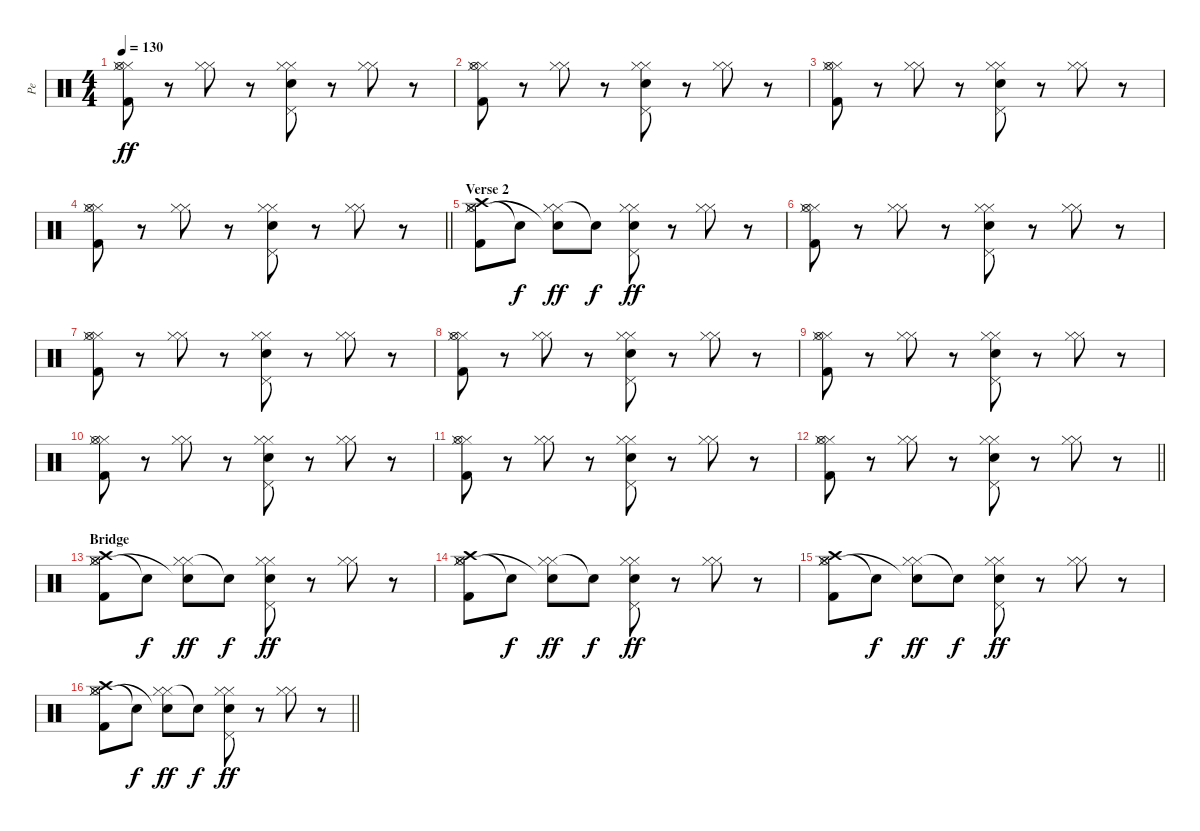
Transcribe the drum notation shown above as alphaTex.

\track ("Pe" "Pe") {instrument percussion}
\staff {score}
\articulation defaults
\ts (4 4)
\tempo 130
\clef neutral
\ks c
("Hi-Hat (closed)" "Hi-Hat (closed)" "Hi-Hat (open)" "Kick (hit) 2").8{dy ff} r.8 ("Hi-Hat (closed)" "Hi-Hat (closed)").8 r.8 ("Hi-Hat (closed)" "Hi-Hat (closed)" "Pedal Hi-Hat (hit)" "Electric Snare (hit)").8 r.8 ("Hi-Hat (closed)" "Hi-Hat (closed)").8 r.8 |
("Hi-Hat (closed)" "Hi-Hat (closed)" "Hi-Hat (open)" "Kick (hit) 2").8 r.8 ("Hi-Hat (closed)" "Hi-Hat (closed)").8 r.8 ("Hi-Hat (closed)" "Hi-Hat (closed)" "Pedal Hi-Hat (hit)" "Electric Snare (hit)").8 r.8 ("Hi-Hat (closed)" "Hi-Hat (closed)").8 r.8 |
("Hi-Hat (closed)" "Hi-Hat (closed)" "Hi-Hat (open)" "Kick (hit) 2").8 r.8 ("Hi-Hat (closed)" "Hi-Hat (closed)").8 r.8 ("Hi-Hat (closed)" "Hi-Hat (closed)" "Pedal Hi-Hat (hit)" "Electric Snare (hit)").8 r.8 ("Hi-Hat (closed)" "Hi-Hat (closed)").8 r.8 |
\barLineRight lightlight
("Hi-Hat (closed)" "Hi-Hat (closed)" "Hi-Hat (open)" "Kick (hit) 2").8 r.8 ("Hi-Hat (closed)" "Hi-Hat (closed)").8 r.8 ("Hi-Hat (closed)" "Hi-Hat (closed)" "Pedal Hi-Hat (hit)" "Electric Snare (hit)").8 r.8 ("Hi-Hat (closed)" "Hi-Hat (closed)").8 r.8 |
\section ("" "Verse 2")
("Hi-Hat (closed)" "Hi-Hat (closed)" "Hi-Hat (open)" "Crash high (hit)" "Kick (hit) 2").8 "Snare (hit)"{t}.8{dy f} ("Hi-Hat (closed)" "Hi-Hat (closed)" "Snare (hit)"{t}).8{dy ff} "Snare (hit)"{t}.8{dy f} ("Hi-Hat (closed)" "Hi-Hat (closed)" "Pedal Hi-Hat (hit)" "Electric Snare (hit)").8{dy ff} r.8 ("Hi-Hat (closed)" "Hi-Hat (closed)").8 r.8 |
("Hi-Hat (closed)" "Hi-Hat (closed)" "Hi-Hat (open)" "Kick (hit) 2").8 r.8 ("Hi-Hat (closed)" "Hi-Hat (closed)").8 r.8 ("Hi-Hat (closed)" "Hi-Hat (closed)" "Pedal Hi-Hat (hit)" "Electric Snare (hit)").8 r.8 ("Hi-Hat (closed)" "Hi-Hat (closed)").8 r.8 |
("Hi-Hat (closed)" "Hi-Hat (closed)" "Hi-Hat (open)" "Kick (hit) 2").8 r.8 ("Hi-Hat (closed)" "Hi-Hat (closed)").8 r.8 ("Hi-Hat (closed)" "Hi-Hat (closed)" "Pedal Hi-Hat (hit)" "Electric Snare (hit)").8 r.8 ("Hi-Hat (closed)" "Hi-Hat (closed)").8 r.8 |
("Hi-Hat (closed)" "Hi-Hat (closed)" "Hi-Hat (open)" "Kick (hit) 2").8 r.8 ("Hi-Hat (closed)" "Hi-Hat (closed)").8 r.8 ("Hi-Hat (closed)" "Hi-Hat (closed)" "Pedal Hi-Hat (hit)" "Electric Snare (hit)").8 r.8 ("Hi-Hat (closed)" "Hi-Hat (closed)").8 r.8 |
("Hi-Hat (closed)" "Hi-Hat (closed)" "Hi-Hat (open)" "Kick (hit) 2").8 r.8 ("Hi-Hat (closed)" "Hi-Hat (closed)").8 r.8 ("Hi-Hat (closed)" "Hi-Hat (closed)" "Pedal Hi-Hat (hit)" "Electric Snare (hit)").8 r.8 ("Hi-Hat (closed)" "Hi-Hat (closed)").8 r.8 |
("Hi-Hat (closed)" "Hi-Hat (closed)" "Hi-Hat (open)" "Kick (hit) 2").8 r.8 ("Hi-Hat (closed)" "Hi-Hat (closed)").8 r.8 ("Hi-Hat (closed)" "Hi-Hat (closed)" "Pedal Hi-Hat (hit)" "Electric Snare (hit)").8 r.8 ("Hi-Hat (closed)" "Hi-Hat (closed)").8 r.8 |
("Hi-Hat (closed)" "Hi-Hat (closed)" "Hi-Hat (open)" "Kick (hit) 2").8 r.8 ("Hi-Hat (closed)" "Hi-Hat (closed)").8 r.8 ("Hi-Hat (closed)" "Hi-Hat (closed)" "Pedal Hi-Hat (hit)" "Electric Snare (hit)").8 r.8 ("Hi-Hat (closed)" "Hi-Hat (closed)").8 r.8 |
\barLineRight lightlight
("Hi-Hat (closed)" "Hi-Hat (closed)" "Hi-Hat (open)" "Kick (hit) 2").8 r.8 ("Hi-Hat (closed)" "Hi-Hat (closed)").8 r.8 ("Hi-Hat (closed)" "Hi-Hat (closed)" "Pedal Hi-Hat (hit)" "Electric Snare (hit)").8 r.8 ("Hi-Hat (closed)" "Hi-Hat (closed)").8 r.8 |
\section ("" "Bridge")
("Hi-Hat (closed)" "Hi-Hat (closed)" "Hi-Hat (open)" "Crash high (hit)" "Kick (hit) 2").8 "Snare (hit)"{t}.8{dy f} ("Hi-Hat (closed)" "Hi-Hat (closed)" "Snare (hit)"{t}).8{dy ff} "Snare (hit)"{t}.8{dy f} ("Hi-Hat (closed)" "Hi-Hat (closed)" "Pedal Hi-Hat (hit)" "Electric Snare (hit)").8{dy ff} r.8 ("Hi-Hat (closed)" "Hi-Hat (closed)").8 r.8 |
("Hi-Hat (closed)" "Hi-Hat (closed)" "Hi-Hat (open)" "Crash high (hit)" "Kick (hit) 2").8 "Snare (hit)"{t}.8{dy f} ("Hi-Hat (closed)" "Hi-Hat (closed)" "Snare (hit)"{t}).8{dy ff} "Snare (hit)"{t}.8{dy f} ("Hi-Hat (closed)" "Hi-Hat (closed)" "Pedal Hi-Hat (hit)" "Electric Snare (hit)").8{dy ff} r.8 ("Hi-Hat (closed)" "Hi-Hat (closed)").8 r.8 |
("Hi-Hat (closed)" "Hi-Hat (closed)" "Hi-Hat (open)" "Crash high (hit)" "Kick (hit) 2").8 "Snare (hit)"{t}.8{dy f} ("Hi-Hat (closed)" "Hi-Hat (closed)" "Snare (hit)"{t}).8{dy ff} "Snare (hit)"{t}.8{dy f} ("Hi-Hat (closed)" "Hi-Hat (closed)" "Pedal Hi-Hat (hit)" "Electric Snare (hit)").8{dy ff} r.8 ("Hi-Hat (closed)" "Hi-Hat (closed)").8 r.8 |
\barLineRight lightlight
("Hi-Hat (closed)" "Hi-Hat (closed)" "Hi-Hat (open)" "Crash high (hit)" "Kick (hit) 2").8 "Snare (hit)"{t}.8{dy f} ("Hi-Hat (closed)" "Hi-Hat (closed)" "Snare (hit)"{t}).8{dy ff} "Snare (hit)"{t}.8{dy f} ("Hi-Hat (closed)" "Hi-Hat (closed)" "Pedal Hi-Hat (hit)" "Electric Snare (hit)").8{dy ff} r.8 ("Hi-Hat (closed)" "Hi-Hat (closed)").8 r.8
